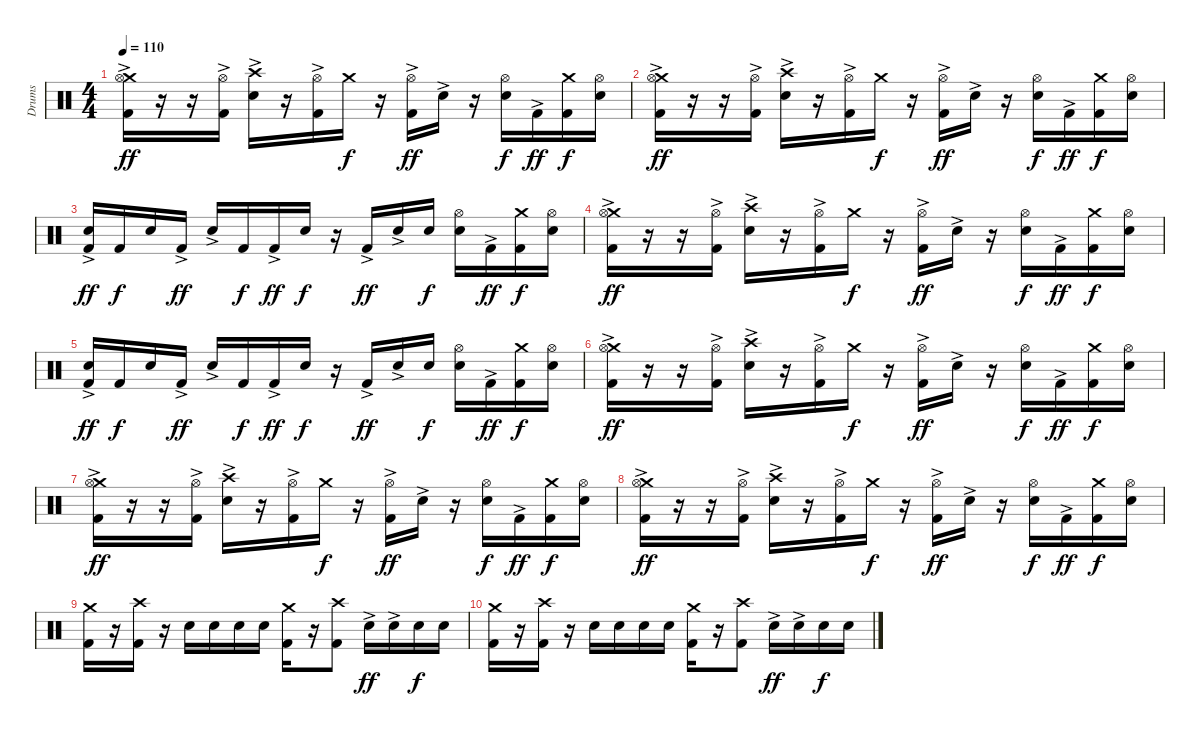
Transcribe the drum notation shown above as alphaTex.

\track ("Drums" "Drums") {instrument percussion}
\staff {score}
\articulation defaults
\ts (4 4)
\tempo 110
\clef neutral
\ks c
("Crash medium (hit)" "Hi-Hat (open)" "Kick (hit) 2"{ac}).16{dy ff} r.16 r.16 ("Hi-Hat (open)" "Kick (hit) 2"{ac}).16 ("Crash high (hit)" "Snare (hit) 2"{ac}).16 r.16 ("Hi-Hat (open)" "Kick (hit) 2"{ac}).16 "Crash medium (hit)".16{dy f} r.16 ("Hi-Hat (open)" "Kick (hit) 2"{ac}).16{dy ff} "Snare (hit) 2"{ac}.16 r.16 ("Hi-Hat (open)" "Snare (hit) 2").16{dy f} "Kick (hit) 2"{ac}.16{dy ff} ("Crash medium (hit)" "Kick (hit) 2").16{dy f} ("Hi-Hat (open)" "Snare (hit) 2").16 |
("Crash medium (hit)" "Hi-Hat (open)" "Kick (hit) 2"{ac}).16{dy ff} r.16 r.16 ("Hi-Hat (open)" "Kick (hit) 2"{ac}).16 ("Crash high (hit)" "Snare (hit) 2"{ac}).16 r.16 ("Hi-Hat (open)" "Kick (hit) 2"{ac}).16 "Crash medium (hit)".16{dy f} r.16 ("Hi-Hat (open)" "Kick (hit) 2"{ac}).16{dy ff} "Snare (hit) 2"{ac}.16 r.16 ("Hi-Hat (open)" "Snare (hit) 2").16{dy f} "Kick (hit) 2"{ac}.16{dy ff} ("Crash medium (hit)" "Kick (hit) 2").16{dy f} ("Hi-Hat (open)" "Snare (hit) 2").16 |
("Electric Snare (hit)" "Kick (hit) 2"{ac}).16{dy ff} "Kick (hit) 2".16{dy f} "Electric Snare (hit)".16 "Kick (hit) 2"{ac}.16{dy ff} "Electric Snare (hit)"{ac}.16 "Kick (hit) 2".16{dy f} "Kick (hit) 2"{ac}.16{dy ff} "Electric Snare (hit)".16{dy f} r.16 "Kick (hit) 2"{ac}.16{dy ff} "Electric Snare (hit)"{ac}.16 "Electric Snare (hit)".16{dy f} ("Hi-Hat (open)" "Snare (hit) 2").16 "Kick (hit) 2"{ac}.16{dy ff} ("Crash medium (hit)" "Kick (hit) 2").16{dy f} ("Hi-Hat (open)" "Snare (hit) 2").16 |
("Crash medium (hit)" "Hi-Hat (open)" "Kick (hit) 2"{ac}).16{dy ff} r.16 r.16 ("Hi-Hat (open)" "Kick (hit) 2"{ac}).16 ("Crash high (hit)" "Snare (hit) 2"{ac}).16 r.16 ("Hi-Hat (open)" "Kick (hit) 2"{ac}).16 "Crash medium (hit)".16{dy f} r.16 ("Hi-Hat (open)" "Kick (hit) 2"{ac}).16{dy ff} "Snare (hit) 2"{ac}.16 r.16 ("Hi-Hat (open)" "Snare (hit) 2").16{dy f} "Kick (hit) 2"{ac}.16{dy ff} ("Crash medium (hit)" "Kick (hit) 2").16{dy f} ("Hi-Hat (open)" "Snare (hit) 2").16 |
("Electric Snare (hit)" "Kick (hit) 2"{ac}).16{dy ff} "Kick (hit) 2".16{dy f} "Electric Snare (hit)".16 "Kick (hit) 2"{ac}.16{dy ff} "Electric Snare (hit)"{ac}.16 "Kick (hit) 2".16{dy f} "Kick (hit) 2"{ac}.16{dy ff} "Electric Snare (hit)".16{dy f} r.16 "Kick (hit) 2"{ac}.16{dy ff} "Electric Snare (hit)"{ac}.16 "Electric Snare (hit)".16{dy f} ("Hi-Hat (open)" "Snare (hit) 2").16 "Kick (hit) 2"{ac}.16{dy ff} ("Crash medium (hit)" "Kick (hit) 2").16{dy f} ("Hi-Hat (open)" "Snare (hit) 2").16 |
("Crash medium (hit)" "Hi-Hat (open)" "Kick (hit) 2"{ac}).16{dy ff} r.16 r.16 ("Hi-Hat (open)" "Kick (hit) 2"{ac}).16 ("Crash high (hit)" "Snare (hit) 2"{ac}).16 r.16 ("Hi-Hat (open)" "Kick (hit) 2"{ac}).16 "Crash medium (hit)".16{dy f} r.16 ("Hi-Hat (open)" "Kick (hit) 2"{ac}).16{dy ff} "Snare (hit) 2"{ac}.16 r.16 ("Hi-Hat (open)" "Snare (hit) 2").16{dy f} "Kick (hit) 2"{ac}.16{dy ff} ("Crash medium (hit)" "Kick (hit) 2").16{dy f} ("Hi-Hat (open)" "Snare (hit) 2").16 |
("Crash medium (hit)" "Hi-Hat (open)" "Kick (hit) 2"{ac}).16{dy ff} r.16 r.16 ("Hi-Hat (open)" "Kick (hit) 2"{ac}).16 ("Crash high (hit)" "Snare (hit) 2"{ac}).16 r.16 ("Hi-Hat (open)" "Kick (hit) 2"{ac}).16 "Crash medium (hit)".16{dy f} r.16 ("Hi-Hat (open)" "Kick (hit) 2"{ac}).16{dy ff} "Snare (hit) 2"{ac}.16 r.16 ("Hi-Hat (open)" "Snare (hit) 2").16{dy f} "Kick (hit) 2"{ac}.16{dy ff} ("Crash medium (hit)" "Kick (hit) 2").16{dy f} ("Hi-Hat (open)" "Snare (hit) 2").16 |
("Crash medium (hit)" "Hi-Hat (open)" "Kick (hit) 2"{ac}).16{dy ff} r.16 r.16 ("Hi-Hat (open)" "Kick (hit) 2"{ac}).16 ("Crash high (hit)" "Snare (hit) 2"{ac}).16 r.16 ("Hi-Hat (open)" "Kick (hit) 2"{ac}).16 "Crash medium (hit)".16{dy f} r.16 ("Hi-Hat (open)" "Kick (hit) 2"{ac}).16{dy ff} "Snare (hit) 2"{ac}.16 r.16 ("Hi-Hat (open)" "Snare (hit) 2").16{dy f} "Kick (hit) 2"{ac}.16{dy ff} ("Crash medium (hit)" "Kick (hit) 2").16{dy f} ("Hi-Hat (open)" "Snare (hit) 2").16 |
("Crash medium (hit)" "Kick (hit) 2").16 r.16 ("Crash high (hit)" "Kick (hit) 2").16 r.16 "Electric Snare (hit)".16 "Electric Snare (hit)".16 "Electric Snare (hit)".16 "Electric Snare (hit)".16 ("Crash medium (hit)" "Kick (hit) 2").16 r.16 ("Crash high (hit)" "Kick (hit) 2").8 "Electric Snare (hit)"{ac}.16{dy ff} "Electric Snare (hit)"{ac}.16 "Electric Snare (hit)".16{dy f} "Electric Snare (hit)".16 |
("Crash medium (hit)" "Kick (hit) 2").16 r.16 ("Crash high (hit)" "Kick (hit) 2").16 r.16 "Electric Snare (hit)".16 "Electric Snare (hit)".16 "Electric Snare (hit)".16 "Electric Snare (hit)".16 ("Crash medium (hit)" "Kick (hit) 2").16 r.16 ("Crash high (hit)" "Kick (hit) 2").8 "Electric Snare (hit)"{ac}.16{dy ff} "Electric Snare (hit)"{ac}.16 "Electric Snare (hit)".16{dy f} "Electric Snare (hit)".16
